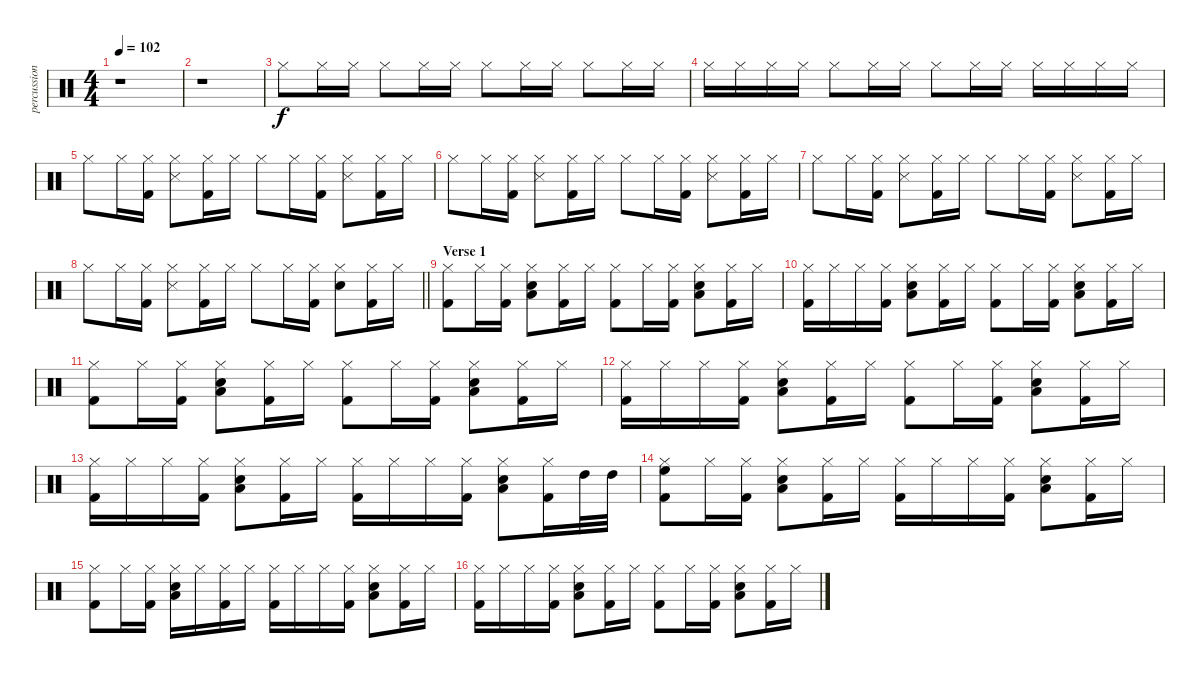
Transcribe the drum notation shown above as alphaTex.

\track ("percussion" "percussion") {instrument percussion}
\staff {score}
\articulation defaults
\ts (4 4)
\tempo 102
\clef neutral
\ks aminor
r.1{dy f} |
r.1 |
"Hi-Hat (closed)".8 "Hi-Hat (closed)".16 "Hi-Hat (closed)".16 "Hi-Hat (closed)".8 "Hi-Hat (closed)".16 "Hi-Hat (closed)".16 "Hi-Hat (closed)".8 "Hi-Hat (closed)".16 "Hi-Hat (closed)".16 "Hi-Hat (closed)".8 "Hi-Hat (closed)".16 "Hi-Hat (closed)".16 |
"Hi-Hat (closed)".16 "Hi-Hat (closed)".16 "Hi-Hat (closed)".16 "Hi-Hat (closed)".16 "Hi-Hat (closed)".8 "Hi-Hat (closed)".16 "Hi-Hat (closed)".16 "Hi-Hat (closed)".8 "Hi-Hat (closed)".16 "Hi-Hat (closed)".16 "Hi-Hat (closed)".16 "Hi-Hat (closed)".16 "Hi-Hat (closed)".16 "Hi-Hat (closed)".16 |
"Hi-Hat (closed)".8 "Hi-Hat (closed)".16 ("Hi-Hat (closed)" "Kick (hit) 2").16 ("Snare (side stick) 3" "Hi-Hat (closed)").8 ("Hi-Hat (closed)" "Kick (hit) 2").16 "Hi-Hat (closed)".16 "Hi-Hat (closed)".8 "Hi-Hat (closed)".16 ("Hi-Hat (closed)" "Kick (hit) 2").16 ("Snare (side stick) 3" "Hi-Hat (closed)").8 ("Hi-Hat (closed)" "Kick (hit) 2").16 "Hi-Hat (closed)".16 |
"Hi-Hat (closed)".8 "Hi-Hat (closed)".16 ("Hi-Hat (closed)" "Kick (hit) 2").16 ("Snare (side stick) 3" "Hi-Hat (closed)").8 ("Hi-Hat (closed)" "Kick (hit) 2").16 "Hi-Hat (closed)".16 "Hi-Hat (closed)".8 "Hi-Hat (closed)".16 ("Hi-Hat (closed)" "Kick (hit) 2").16 ("Snare (side stick) 3" "Hi-Hat (closed)").8 ("Hi-Hat (closed)" "Kick (hit) 2").16 "Hi-Hat (closed)".16 |
"Hi-Hat (closed)".8 "Hi-Hat (closed)".16 ("Hi-Hat (closed)" "Kick (hit) 2").16 ("Snare (side stick) 3" "Hi-Hat (closed)").8 ("Hi-Hat (closed)" "Kick (hit) 2").16 "Hi-Hat (closed)".16 "Hi-Hat (closed)".8 "Hi-Hat (closed)".16 ("Hi-Hat (closed)" "Kick (hit) 2").16 ("Snare (side stick) 3" "Hi-Hat (closed)").8 ("Hi-Hat (closed)" "Kick (hit) 2").16 "Hi-Hat (closed)".16 |
\barLineRight lightlight "Hi-Hat (closed)".8 "Hi-Hat (closed)".16
("Hi-Hat (closed)" "Kick (hit) 2").16 ("Snare (side stick) 3" "Hi-Hat (closed)").8 ("Hi-Hat (closed)" "Kick (hit) 2").16 "Hi-Hat (closed)".16 "Hi-Hat (closed)".8 "Hi-Hat (closed)".16 ("Hi-Hat (closed)" "Kick (hit) 2").16 ("Electric Snare (hit)" "Hi-Hat (closed)").8 ("Hi-Hat (closed)" "Kick (hit) 2").16 "Hi-Hat (closed)".16 |
\section ("" "Verse 1")
("Hi-Hat (closed)" "Kick (hit) 2").8 "Hi-Hat (closed)".16 ("Hi-Hat (closed)" "Kick (hit) 2").16 ("Low Floor Tom (hit)" "Snare (hit) 2" "Hi-Hat (closed)").8 ("Hi-Hat (closed)" "Kick (hit) 2").16 "Hi-Hat (closed)".16 ("Hi-Hat (closed)" "Kick (hit) 2").8 "Hi-Hat (closed)".16 ("Hi-Hat (closed)" "Kick (hit) 2").16 ("Low Floor Tom (hit)" "Snare (hit) 2" "Hi-Hat (closed)").8 ("Hi-Hat (closed)" "Kick (hit) 2").16 "Hi-Hat (closed)".16 |
("Hi-Hat (closed)" "Kick (hit) 2").16 "Hi-Hat (closed)".16 "Hi-Hat (closed)".16 ("Hi-Hat (closed)" "Kick (hit) 2").16 ("Low Floor Tom (hit)" "Snare (hit) 2" "Hi-Hat (closed)").8 ("Hi-Hat (closed)" "Kick (hit) 2").16 "Hi-Hat (closed)".16 ("Hi-Hat (closed)" "Kick (hit) 2").8 "Hi-Hat (closed)".16 ("Hi-Hat (closed)" "Kick (hit) 2").16 ("Low Floor Tom (hit)" "Snare (hit) 2" "Hi-Hat (closed)").8 ("Hi-Hat (closed)" "Kick (hit) 2").16 "Hi-Hat (closed)".16 |
("Hi-Hat (closed)" "Kick (hit) 2").8 "Hi-Hat (closed)".16 ("Hi-Hat (closed)" "Kick (hit) 2").16 ("Low Floor Tom (hit)" "Snare (hit) 2" "Hi-Hat (closed)").8 ("Hi-Hat (closed)" "Kick (hit) 2").16 "Hi-Hat (closed)".16 ("Hi-Hat (closed)" "Kick (hit) 2").8 "Hi-Hat (closed)".16 ("Hi-Hat (closed)" "Kick (hit) 2").16 ("Low Floor Tom (hit)" "Snare (hit) 2" "Hi-Hat (closed)").8 ("Hi-Hat (closed)" "Kick (hit) 2").16 "Hi-Hat (closed)".16 |
("Hi-Hat (closed)" "Kick (hit) 2").16 "Hi-Hat (closed)".16 "Hi-Hat (closed)".16 ("Hi-Hat (closed)" "Kick (hit) 2").16 ("Low Floor Tom (hit)" "Snare (hit) 2" "Hi-Hat (closed)").8 ("Hi-Hat (closed)" "Kick (hit) 2").16 "Hi-Hat (closed)".16 ("Hi-Hat (closed)" "Kick (hit) 2").8 "Hi-Hat (closed)".16 ("Hi-Hat (closed)" "Kick (hit) 2").16 ("Low Floor Tom (hit)" "Snare (hit) 2" "Hi-Hat (closed)").8 ("Hi-Hat (closed)" "Kick (hit) 2").16 "Hi-Hat (closed)".16 |
("Hi-Hat (closed)" "Kick (hit) 2").16 "Hi-Hat (closed)".16 "Hi-Hat (closed)".16 ("Hi-Hat (closed)" "Kick (hit) 2").16 ("Low Floor Tom (hit)" "Snare (hit) 2" "Hi-Hat (closed)").8 ("Hi-Hat (closed)" "Kick (hit) 2").16 "Hi-Hat (closed)".16 ("Hi-Hat (closed)" "Kick (hit) 2").16 "Hi-Hat (closed)".16 "Hi-Hat (closed)".16 ("Hi-Hat (closed)" "Kick (hit) 2").16 ("Low Floor Tom (hit)" "Snare (hit) 2" "Hi-Hat (closed)").8 ("Hi-Hat (closed)" "Kick (hit) 2").16 "High Tom (hit)".32 "High Tom (hit)".32 |
("High Floor Tom (hit)" "Hi-Hat (closed)" "Kick (hit) 2").8 "Hi-Hat (closed)".16 ("Hi-Hat (closed)" "Kick (hit) 2").16 ("Low Floor Tom (hit)" "Snare (hit) 2" "Hi-Hat (closed)").8 ("Hi-Hat (closed)" "Kick (hit) 2").16 "Hi-Hat (closed)".16 ("Hi-Hat (closed)" "Kick (hit) 2").16 "Hi-Hat (closed)".16 "Hi-Hat (closed)".16 ("Hi-Hat (closed)" "Kick (hit) 2").16 ("Low Floor Tom (hit)" "Snare (hit) 2" "Hi-Hat (closed)").8 ("Hi-Hat (closed)" "Kick (hit) 2").16 "Hi-Hat (closed)".16 |
("Hi-Hat (closed)" "Kick (hit) 2").8 "Hi-Hat (closed)".16 ("Hi-Hat (closed)" "Kick (hit) 2").16 ("Low Floor Tom (hit)" "Snare (hit) 2" "Hi-Hat (closed)").16 "Hi-Hat (closed)".16 ("Hi-Hat (closed)" "Kick (hit) 2").16 "Hi-Hat (closed)".16 ("Hi-Hat (closed)" "Kick (hit) 2").16 "Hi-Hat (closed)".16 "Hi-Hat (closed)".16 ("Hi-Hat (closed)" "Kick (hit) 2").16 ("Low Floor Tom (hit)" "Snare (hit) 2" "Hi-Hat (closed)").8 ("Hi-Hat (closed)" "Kick (hit) 2").16 "Hi-Hat (closed)".16 |
("Hi-Hat (closed)" "Kick (hit) 2").16 "Hi-Hat (closed)".16 "Hi-Hat (closed)".16 ("Hi-Hat (closed)" "Kick (hit) 2").16 ("Low Floor Tom (hit)" "Snare (hit) 2" "Hi-Hat (closed)").8 ("Hi-Hat (closed)" "Kick (hit) 2").16 "Hi-Hat (closed)".16 ("Hi-Hat (closed)" "Kick (hit) 2").8 "Hi-Hat (closed)".16 ("Hi-Hat (closed)" "Kick (hit) 2").16 ("Low Floor Tom (hit)" "Snare (hit) 2" "Hi-Hat (closed)").8 ("Hi-Hat (closed)" "Kick (hit) 2").16 "Hi-Hat (closed)".16
